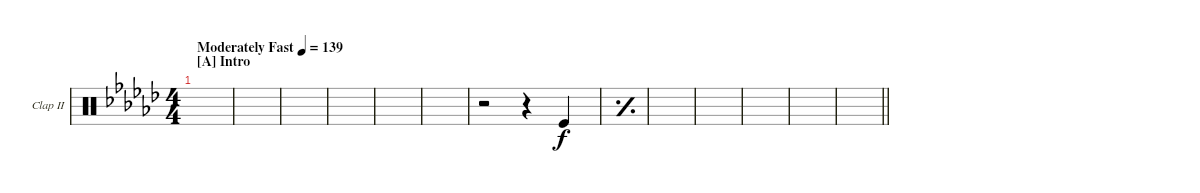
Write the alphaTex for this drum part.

\bracketExtendMode groupsimilarinstruments
\firstSystemTrackNameOrientation horizontal
\otherSystemsTrackNameOrientation horizontal
\defaultBarNumberDisplay FirstOfSystem
\track ("Hand Clap II" "Clap II") {instrument percussion}
\staff {score}
\articulation defaults
\ts (4 4)
\beaming (8 2 2 2 2)
\section ("A" "Intro")
\tempo (139 "Moderately Fast")
\clef neutral
\ks gb
|
|
|
|
|
|
r.2 r.4 "Kick (hit)".4 |
\simile simple
|
|
|
|
|
\barLineRight lightlight
